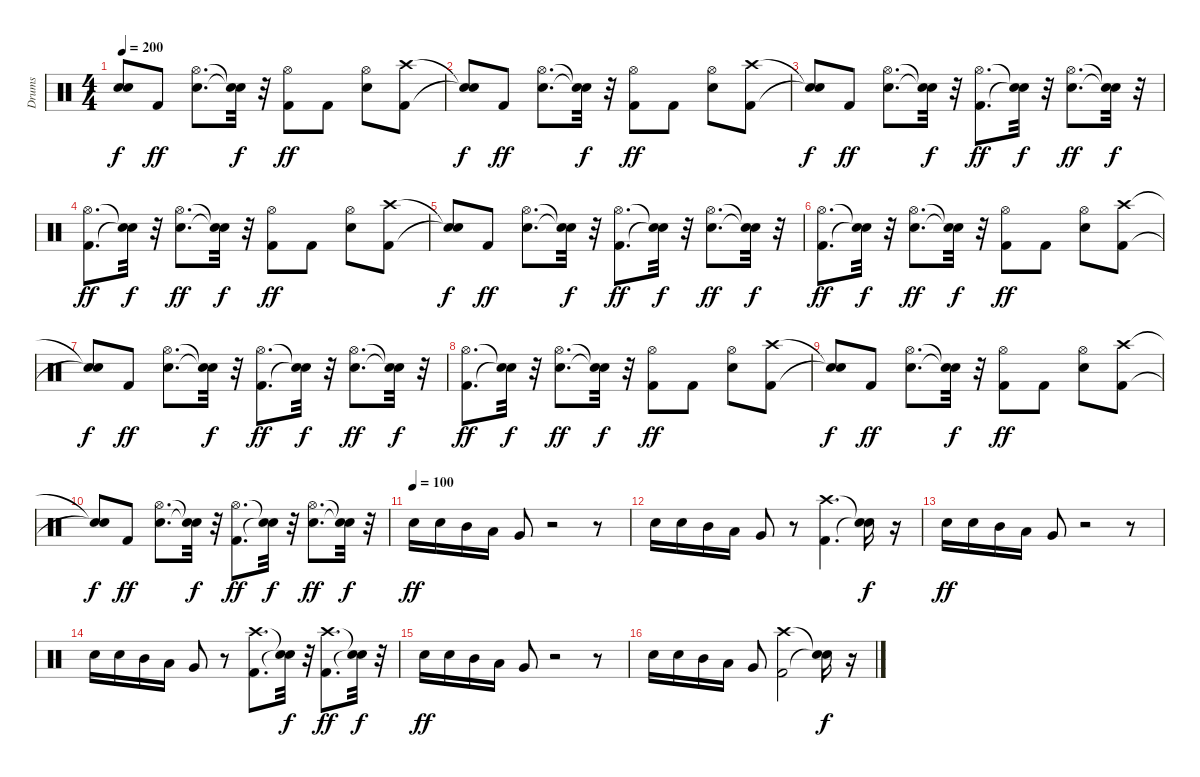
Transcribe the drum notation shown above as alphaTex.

\track ("Drums" "Drums") {instrument percussion}
\staff {score}
\articulation defaults
\ts (4 4)
\tempo 200
\clef neutral
\ks c
("Snare (hit)"{t} "Snare (hit)"{t}).8{dy f} "Kick (hit) 2".8{dy ff} ("Snare (hit) 2" "Hi-Hat (open)").8{d} ("Snare (hit)"{t} "Snare (hit)"{t}).32{dy f} r.32 ("Kick (hit) 2" "Hi-Hat (open)").8{dy ff} "Kick (hit) 2".8 ("Snare (hit) 2" "Hi-Hat (open)").8 ("Kick (hit) 2" "Crash high (hit)").8 |
("Snare (hit)"{t} "Snare (hit)"{t}).8{dy f} "Kick (hit) 2".8{dy ff} ("Snare (hit) 2" "Hi-Hat (open)").8{d} ("Snare (hit)"{t} "Snare (hit)"{t}).32{dy f} r.32 ("Kick (hit) 2" "Hi-Hat (open)").8{dy ff} "Kick (hit) 2".8 ("Snare (hit) 2" "Hi-Hat (open)").8 ("Kick (hit) 2" "Crash high (hit)").8 |
("Snare (hit)"{t} "Snare (hit)"{t}).8{dy f} "Kick (hit) 2".8{dy ff} ("Snare (hit) 2" "Hi-Hat (open)").8{d} ("Snare (hit)"{t} "Snare (hit)"{t}).32{dy f} r.32 ("Kick (hit) 2" "Hi-Hat (open)").8{d dy ff} ("Snare (hit)"{t} "Snare (hit)"{t}).32{dy f} r.32 ("Snare (hit) 2" "Hi-Hat (open)").8{d dy ff} ("Snare (hit)"{t} "Snare (hit)"{t}).32{dy f} r.32 |
("Kick (hit) 2" "Hi-Hat (open)").8{d dy ff} ("Snare (hit)"{t} "Snare (hit)"{t}).32{dy f} r.32 ("Snare (hit) 2" "Hi-Hat (open)").8{d dy ff} ("Snare (hit)"{t} "Snare (hit)"{t}).32{dy f} r.32 ("Kick (hit) 2" "Hi-Hat (open)").8{dy ff} "Kick (hit) 2".8 ("Snare (hit) 2" "Hi-Hat (open)").8 ("Kick (hit) 2" "Crash high (hit)").8 |
("Snare (hit)"{t} "Snare (hit)"{t}).8{dy f} "Kick (hit) 2".8{dy ff} ("Snare (hit) 2" "Hi-Hat (open)").8{d} ("Snare (hit)"{t} "Snare (hit)"{t}).32{dy f} r.32 ("Kick (hit) 2" "Hi-Hat (open)").8{d dy ff} ("Snare (hit)"{t} "Snare (hit)"{t}).32{dy f} r.32 ("Snare (hit) 2" "Hi-Hat (open)").8{d dy ff} ("Snare (hit)"{t} "Snare (hit)"{t}).32{dy f} r.32 |
("Kick (hit) 2" "Hi-Hat (open)").8{d dy ff} ("Snare (hit)"{t} "Snare (hit)"{t}).32{dy f} r.32 ("Snare (hit) 2" "Hi-Hat (open)").8{d dy ff} ("Snare (hit)"{t} "Snare (hit)"{t}).32{dy f} r.32 ("Kick (hit) 2" "Hi-Hat (open)").8{dy ff} "Kick (hit) 2".8 ("Snare (hit) 2" "Hi-Hat (open)").8 ("Kick (hit) 2" "Crash high (hit)").8 |
("Snare (hit)"{t} "Snare (hit)"{t}).8{dy f} "Kick (hit) 2".8{dy ff} ("Snare (hit) 2" "Hi-Hat (open)").8{d} ("Snare (hit)"{t} "Snare (hit)"{t}).32{dy f} r.32 ("Kick (hit) 2" "Hi-Hat (open)").8{d dy ff} ("Snare (hit)"{t} "Snare (hit)"{t}).32{dy f} r.32 ("Snare (hit) 2" "Hi-Hat (open)").8{d dy ff} ("Snare (hit)"{t} "Snare (hit)"{t}).32{dy f} r.32 |
("Kick (hit) 2" "Hi-Hat (open)").8{d dy ff} ("Snare (hit)"{t} "Snare (hit)"{t}).32{dy f} r.32 ("Snare (hit) 2" "Hi-Hat (open)").8{d dy ff} ("Snare (hit)"{t} "Snare (hit)"{t}).32{dy f} r.32 ("Kick (hit) 2" "Hi-Hat (open)").8{dy ff} "Kick (hit) 2".8 ("Snare (hit) 2" "Hi-Hat (open)").8 ("Kick (hit) 2" "Crash high (hit)").8 |
("Snare (hit)"{t} "Snare (hit)"{t}).8{dy f} "Kick (hit) 2".8{dy ff} ("Snare (hit) 2" "Hi-Hat (open)").8{d} ("Snare (hit)"{t} "Snare (hit)"{t}).32{dy f} r.32 ("Kick (hit) 2" "Hi-Hat (open)").8{dy ff} "Kick (hit) 2".8 ("Snare (hit) 2" "Hi-Hat (open)").8 ("Kick (hit) 2" "Crash high (hit)").8 |
("Snare (hit)"{t} "Snare (hit)"{t}).8{dy f} "Kick (hit) 2".8{dy ff} ("Snare (hit) 2" "Hi-Hat (open)").8{d} ("Snare (hit)"{t} "Snare (hit)"{t}).32{dy f} r.32 ("Kick (hit) 2" "Hi-Hat (open)").8{d dy ff} ("Snare (hit)"{t} "Snare (hit)"{t}).32{dy f} r.32 ("Snare (hit) 2" "Hi-Hat (open)").8{d dy ff} ("Snare (hit)"{t} "Snare (hit)"{t}).32{dy f} r.32 |
\tempo (100)
"Snare (hit) 2".16{dy ff} "Snare (hit) 2".16 "Mid Tom (hit)".16 "Low Tom (hit)".16 "Very Low Tom (hit)".8 r.2 r.8 |
"Snare (hit) 2".16 "Snare (hit) 2".16 "Mid Tom (hit)".16 "Low Tom (hit)".16 "Very Low Tom (hit)".8 r.8 ("Kick (hit) 2" "Crash high (hit)").4{d} ("Snare (hit)"{t} "Snare (hit)"{t}).16{dy f} r.16 |
"Snare (hit) 2".16{dy ff} "Snare (hit) 2".16 "Mid Tom (hit)".16 "Low Tom (hit)".16 "Very Low Tom (hit)".8 r.2 r.8 |
"Snare (hit) 2".16 "Snare (hit) 2".16 "Mid Tom (hit)".16 "Low Tom (hit)".16 "Very Low Tom (hit)".8 r.8 ("Kick (hit) 2" "Crash high (hit)").8{d} ("Snare (hit)"{t} "Snare (hit)"{t}).32{dy f} r.32 ("Kick (hit) 2" "Crash high (hit)").8{d dy ff} ("Snare (hit)"{t} "Snare (hit)"{t}).32{dy f} r.32 |
"Snare (hit) 2".16{dy ff} "Snare (hit) 2".16 "Mid Tom (hit)".16 "Low Tom (hit)".16 "Very Low Tom (hit)".8 r.2 r.8 |
"Snare (hit) 2".16 "Snare (hit) 2".16 "Mid Tom (hit)".16 "Low Tom (hit)".16 "Very Low Tom (hit)".8 ("Kick (hit) 2" "Crash high (hit)").2 ("Snare (hit)"{t} "Snare (hit)"{t}).16{dy f} r.16
